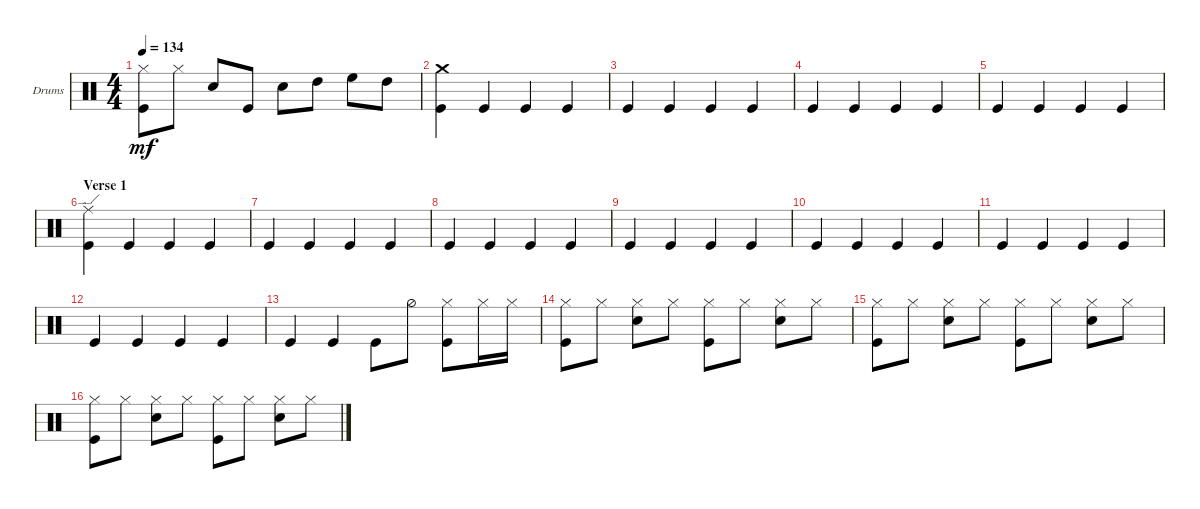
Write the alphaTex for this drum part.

\defaultSystemsLayout 4
\bracketExtendMode groupsimilarinstruments
\firstSystemTrackNameOrientation horizontal
\otherSystemsTrackNameOrientation horizontal
\track ("Drums" "Drums") {instrument percussion}
\staff {score}
\articulation defaults
\ts (4 4)
\tempo 134
\clef neutral
\ks c
("Hi-Hat (closed)" "Kick (hit)").8{dy mf} "Hi-Hat (closed)".8 "Snare (hit) 2".8 "Kick (hit)".8 "Snare (hit) 2".8 "High Tom (hit)".8 "High Floor Tom (hit)".8 "High Tom (hit)".8 |
("Crash medium (hit)" "Kick (hit)").4 "Kick (hit)".4 "Kick (hit)".4 "Kick (hit)".4 |
"Kick (hit)".4 "Kick (hit)".4 "Kick (hit)".4 "Kick (hit)".4 |
"Kick (hit)".4 "Kick (hit)".4 "Kick (hit)".4 "Kick (hit)".4 |
"Kick (hit)".4 "Kick (hit)".4 "Kick (hit)".4 "Kick (hit)".4 |
\section ("" "Verse 1")
("Kick (hit)" "Ride (edge)").4 "Kick (hit)".4 "Kick (hit)".4 "Kick (hit)".4 |
"Kick (hit)".4 "Kick (hit)".4 "Kick (hit)".4 "Kick (hit)".4 |
"Kick (hit)".4 "Kick (hit)".4 "Kick (hit)".4 "Kick (hit)".4 |
"Kick (hit)".4 "Kick (hit)".4 "Kick (hit)".4 "Kick (hit)".4 |
"Kick (hit)".4 "Kick (hit)".4 "Kick (hit)".4 "Kick (hit)".4 |
"Kick (hit)".4 "Kick (hit)".4 "Kick (hit)".4 "Kick (hit)".4 |
"Kick (hit)".4 "Kick (hit)".4 "Kick (hit)".4 "Kick (hit)".4 |
"Kick (hit)".4 "Kick (hit)".4 "Kick (hit)".8 "Hi-Hat (half)".8 ("Kick (hit)" "Hi-Hat (closed)").8 "Hi-Hat (closed)".16 "Hi-Hat (closed)".16 |
("Hi-Hat (closed)" "Kick (hit)").8 "Hi-Hat (closed)".8 ("Hi-Hat (closed)" "Snare (hit) 2").8 "Hi-Hat (closed)".8 ("Hi-Hat (closed)" "Kick (hit)").8 "Hi-Hat (closed)".8 ("Hi-Hat (closed)" "Snare (hit) 2").8 "Hi-Hat (closed)".8 |
("Hi-Hat (closed)" "Kick (hit)").8 "Hi-Hat (closed)".8 ("Hi-Hat (closed)" "Snare (hit) 2").8 "Hi-Hat (closed)".8 ("Hi-Hat (closed)" "Kick (hit)").8 "Hi-Hat (closed)".8 ("Hi-Hat (closed)" "Snare (hit) 2").8 "Hi-Hat (closed)".8 |
("Hi-Hat (closed)" "Kick (hit)").8 "Hi-Hat (closed)".8 ("Hi-Hat (closed)" "Snare (hit) 2").8 "Hi-Hat (closed)".8 ("Hi-Hat (closed)" "Kick (hit)").8 "Hi-Hat (closed)".8 ("Hi-Hat (closed)" "Snare (hit) 2").8 "Hi-Hat (closed)".8
